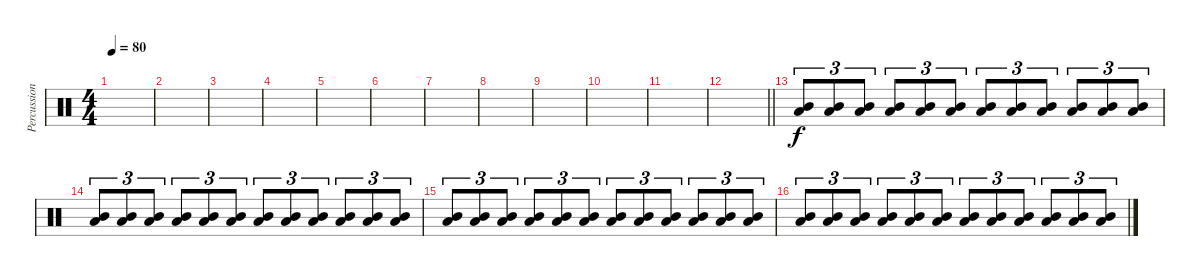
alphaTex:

\track ("Percussion" "Percussion") {instrument percussion}
\staff {score}
\articulation defaults
\ts (4 4)
\tempo 80
\clef neutral
\ks c
|
|
|
|
|
|
|
|
|
|
|
\barLineRight lightlight
|
\section ("" "")
("Mid Tom (hit)" "Low Floor Tom (hit)").8{tu (3 2) volume 0} ("Mid Tom (hit)" "Low Floor Tom (hit)").8{tu (3 2)} ("Mid Tom (hit)" "Low Floor Tom (hit)").8{tu (3 2)} ("Mid Tom (hit)" "Low Floor Tom (hit)").8{tu (3 2)} ("Mid Tom (hit)" "Low Floor Tom (hit)").8{tu (3 2)} ("Mid Tom (hit)" "Low Floor Tom (hit)").8{tu (3 2)} ("Mid Tom (hit)" "Low Floor Tom (hit)").8{tu (3 2) volume 1} ("Mid Tom (hit)" "Low Floor Tom (hit)").8{tu (3 2)} ("Mid Tom (hit)" "Low Floor Tom (hit)").8{tu (3 2)} ("Mid Tom (hit)" "Low Floor Tom (hit)").8{tu (3 2)} ("Mid Tom (hit)" "Low Floor Tom (hit)").8{tu (3 2)} ("Mid Tom (hit)" "Low Floor Tom (hit)").8{tu (3 2)} |
("Mid Tom (hit)" "Low Floor Tom (hit)").8{tu (3 2) volume 2} ("Mid Tom (hit)" "Low Floor Tom (hit)").8{tu (3 2)} ("Mid Tom (hit)" "Low Floor Tom (hit)").8{tu (3 2)} ("Mid Tom (hit)" "Low Floor Tom (hit)").8{tu (3 2)} ("Mid Tom (hit)" "Low Floor Tom (hit)").8{tu (3 2)} ("Mid Tom (hit)" "Low Floor Tom (hit)").8{tu (3 2)} ("Mid Tom (hit)" "Low Floor Tom (hit)").8{tu (3 2) volume 3} ("Mid Tom (hit)" "Low Floor Tom (hit)").8{tu (3 2)} ("Mid Tom (hit)" "Low Floor Tom (hit)").8{tu (3 2)} ("Mid Tom (hit)" "Low Floor Tom (hit)").8{tu (3 2)} ("Mid Tom (hit)" "Low Floor Tom (hit)").8{tu (3 2)} ("Mid Tom (hit)" "Low Floor Tom (hit)").8{tu (3 2)} |
("Mid Tom (hit)" "Low Floor Tom (hit)").8{tu (3 2) volume 4} ("Mid Tom (hit)" "Low Floor Tom (hit)").8{tu (3 2)} ("Mid Tom (hit)" "Low Floor Tom (hit)").8{tu (3 2)} ("Mid Tom (hit)" "Low Floor Tom (hit)").8{tu (3 2)} ("Mid Tom (hit)" "Low Floor Tom (hit)").8{tu (3 2)} ("Mid Tom (hit)" "Low Floor Tom (hit)").8{tu (3 2)} ("Mid Tom (hit)" "Low Floor Tom (hit)").8{tu (3 2) volume 5} ("Mid Tom (hit)" "Low Floor Tom (hit)").8{tu (3 2)} ("Mid Tom (hit)" "Low Floor Tom (hit)").8{tu (3 2)} ("Mid Tom (hit)" "Low Floor Tom (hit)").8{tu (3 2)} ("Mid Tom (hit)" "Low Floor Tom (hit)").8{tu (3 2)} ("Mid Tom (hit)" "Low Floor Tom (hit)").8{tu (3 2)} |
("Mid Tom (hit)" "Low Floor Tom (hit)").8{tu (3 2) volume 6} ("Mid Tom (hit)" "Low Floor Tom (hit)").8{tu (3 2)} ("Mid Tom (hit)" "Low Floor Tom (hit)").8{tu (3 2)} ("Mid Tom (hit)" "Low Floor Tom (hit)").8{tu (3 2)} ("Mid Tom (hit)" "Low Floor Tom (hit)").8{tu (3 2)} ("Mid Tom (hit)" "Low Floor Tom (hit)").8{tu (3 2)} ("Mid Tom (hit)" "Low Floor Tom (hit)").8{tu (3 2) volume 7} ("Mid Tom (hit)" "Low Floor Tom (hit)").8{tu (3 2)} ("Mid Tom (hit)" "Low Floor Tom (hit)").8{tu (3 2)} ("Mid Tom (hit)" "Low Floor Tom (hit)").8{tu (3 2)} ("Mid Tom (hit)" "Low Floor Tom (hit)").8{tu (3 2)} ("Mid Tom (hit)" "Low Floor Tom (hit)").8{tu (3 2)}
